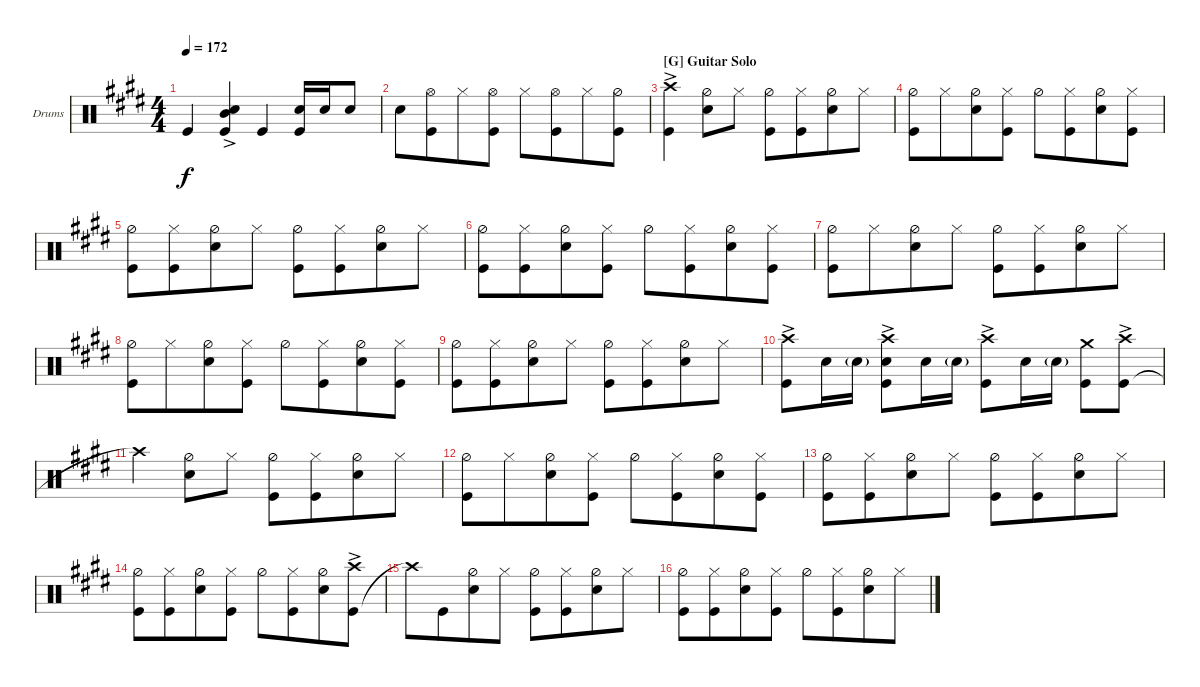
\bracketExtendMode groupsimilarinstruments
\firstSystemTrackNameOrientation horizontal
\otherSystemsTrackNameOrientation horizontal
\track ("Drums" "Drums") {instrument percussion}
\staff {score}
\articulation defaults
\ts (4 4)
\tempo 172
\clef neutral
\ks e "Kick (hit)".4{dy f}
("Kick (hit)" "Snare (hit) 2"{ac} "Mid Tom (hit)"{ac}).4 "Kick (hit)".4 ("Kick (hit)" "Snare (hit) 2").16 "Snare (hit) 2".16 "Snare (hit) 2".8 |
\scale
0.322034 "Snare (hit) 2".8 ("Kick (hit)" "Hi-Hat (open)").8{beam merge} "Hi-Hat (closed)".8 ("Kick (hit)" "Hi-Hat (open)").8 "Hi-Hat (closed)".8 ("Kick (hit)" "Hi-Hat (open)").8{beam merge} "Hi-Hat (closed)".8 ("Kick (hit)" "Hi-Hat (half)").8 |
\section ("G" "Guitar Solo")
\scale
0.333333 ("Kick (hit)" "Crash high (hit)"{ac}).4 ("Snare (hit) 2" "Hi-Hat (half)").8 "Hi-Hat (closed)".8 ("Kick (hit)" "Hi-Hat (half)").8 ("Kick (hit)" "Hi-Hat (closed)").8{beam merge} ("Hi-Hat (half)" "Snare (hit) 2").8 "Hi-Hat (closed)".8 |
\scale
0.333333 ("Hi-Hat (half)" "Kick (hit)").8 "Hi-Hat (closed)".8{beam merge} ("Hi-Hat (half)" "Snare (hit) 2").8 ("Hi-Hat (closed)" "Kick (hit)").8 "Hi-Hat (half)".8 ("Hi-Hat (closed)" "Kick (hit)").8{beam merge} ("Hi-Hat (half)" "Snare (hit) 2").8 ("Hi-Hat (closed)" "Kick (hit)").8 |
\scale
0.333333 ("Hi-Hat (half)" "Kick (hit)").8 ("Hi-Hat (closed)" "Kick (hit)").8{beam merge} ("Hi-Hat (half)" "Snare (hit) 2").8 "Hi-Hat (closed)".8 ("Hi-Hat (half)" "Kick (hit)").8 ("Hi-Hat (closed)" "Kick (hit)").8{beam merge} ("Hi-Hat (half)" "Snare (hit) 2").8 "Hi-Hat (closed)".8 |
\scale
0.333333 ("Hi-Hat (half)" "Kick (hit)").8 ("Hi-Hat (closed)" "Kick (hit)").8{beam merge} ("Hi-Hat (half)" "Snare (hit) 2").8 ("Hi-Hat (closed)" "Kick (hit)").8 "Hi-Hat (half)".8 ("Hi-Hat (closed)" "Kick (hit)").8{beam merge} ("Hi-Hat (half)" "Snare (hit) 2").8 ("Hi-Hat (closed)" "Kick (hit)").8 |
\scale
0.333333 ("Hi-Hat (half)" "Kick (hit)").8 "Hi-Hat (closed)".8{beam merge} ("Snare (hit) 2" "Hi-Hat (half)").8 "Hi-Hat (closed)".8 ("Kick (hit)" "Hi-Hat (half)").8 ("Kick (hit)" "Hi-Hat (closed)").8{beam merge} ("Hi-Hat (half)" "Snare (hit) 2").8 "Hi-Hat (closed)".8 |
\scale
0.333333 ("Hi-Hat (half)" "Kick (hit)").8 "Hi-Hat (closed)".8{beam merge} ("Hi-Hat (half)" "Snare (hit) 2").8 ("Hi-Hat (closed)" "Kick (hit)").8 "Hi-Hat (half)".8 ("Hi-Hat (closed)" "Kick (hit)").8{beam merge} ("Hi-Hat (half)" "Snare (hit) 2").8 ("Hi-Hat (closed)" "Kick (hit)").8 |
\scale
0.333333 ("Hi-Hat (half)" "Kick (hit)").8 ("Hi-Hat (closed)" "Kick (hit)").8{beam merge} ("Hi-Hat (half)" "Snare (hit) 2").8 "Hi-Hat (closed)".8 ("Hi-Hat (half)" "Kick (hit)").8 ("Hi-Hat (closed)" "Kick (hit)").8{beam merge} ("Hi-Hat (half)" "Snare (hit) 2").8 "Hi-Hat (closed)".8 |
\scale
0.333333 ("Kick (hit)" "Crash high (hit)"{ac}).8 "Snare (hit) 2".16 "Snare (hit) 2"{g}.16 ("Snare (hit) 2" "Kick (hit)" "Crash high (hit)"{ac}).8 "Snare (hit) 2".16 "Snare (hit) 2"{g}.16 ("Kick (hit)" "Crash high (hit)"{ac}).8 "Snare (hit) 2".16 "Snare (hit) 2"{g}.16 ("Kick (hit)" "Crash medium (hit)").8 ("Kick (hit)" "Crash high (hit)"{ac}).8 |
\scale
0.333333 "Crash high (hit)"{t}.4 ("Snare (hit) 2" "Hi-Hat (half)").8 "Hi-Hat (closed)".8 ("Kick (hit)" "Hi-Hat (half)").8 ("Kick (hit)" "Hi-Hat (closed)").8{beam merge} ("Hi-Hat (half)" "Snare (hit) 2").8 "Hi-Hat (closed)".8 |
\scale
0.333333 ("Hi-Hat (half)" "Kick (hit)").8 "Hi-Hat (closed)".8{beam merge} ("Hi-Hat (half)" "Snare (hit) 2").8 ("Hi-Hat (closed)" "Kick (hit)").8 "Hi-Hat (half)".8 ("Hi-Hat (closed)" "Kick (hit)").8{beam merge} ("Hi-Hat (half)" "Snare (hit) 2").8 ("Hi-Hat (closed)" "Kick (hit)").8 |
\scale
0.333333 ("Hi-Hat (half)" "Kick (hit)").8 ("Hi-Hat (closed)" "Kick (hit)").8{beam merge} ("Hi-Hat (half)" "Snare (hit) 2").8 "Hi-Hat (closed)".8 ("Hi-Hat (half)" "Kick (hit)").8 ("Hi-Hat (closed)" "Kick (hit)").8{beam merge} ("Hi-Hat (half)" "Snare (hit) 2").8 "Hi-Hat (closed)".8 |
\scale
0.333333 ("Hi-Hat (half)" "Kick (hit)").8 ("Hi-Hat (closed)" "Kick (hit)").8{beam merge} ("Hi-Hat (half)" "Snare (hit) 2").8 ("Hi-Hat (closed)" "Kick (hit)").8 "Hi-Hat (half)".8 ("Hi-Hat (closed)" "Kick (hit)").8{beam merge} ("Hi-Hat (half)" "Snare (hit) 2").8 ("Kick (hit)" "Crash high (hit)"{ac}).8 |
\scale
0.333333 "Crash high (hit)"{t}.8 "Kick (hit)".8{beam merge} ("Snare (hit) 2" "Hi-Hat (half)").8 "Hi-Hat (closed)".8 ("Kick (hit)" "Hi-Hat (half)").8 ("Kick (hit)" "Hi-Hat (closed)").8{beam merge} ("Hi-Hat (half)" "Snare (hit) 2").8 "Hi-Hat (closed)".8 |
\scale
0.333333 ("Hi-Hat (half)" "Kick (hit)").8 ("Hi-Hat (closed)" "Kick (hit)").8{beam merge} ("Hi-Hat (half)" "Snare (hit) 2").8 ("Hi-Hat (closed)" "Kick (hit)").8 "Hi-Hat (half)".8 ("Hi-Hat (closed)" "Kick (hit)").8{beam merge} ("Hi-Hat (half)" "Snare (hit) 2").8 "Hi-Hat (closed)".8
